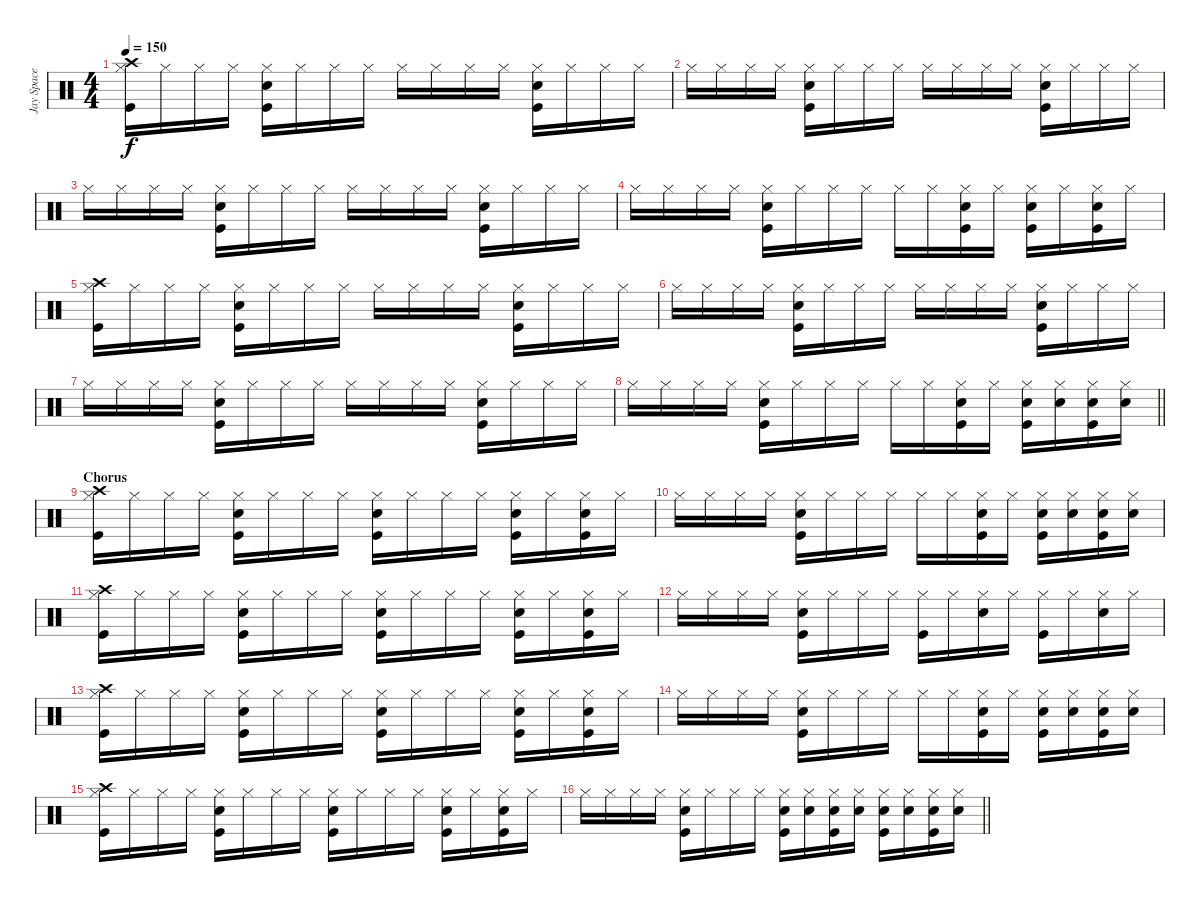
\track ("Jay Space - Drums" "Jay Space ") {instrument percussion}
\staff {score}
\articulation defaults
\ts (4 4)
\tempo 150
\clef neutral
\ks c
("Hi-Hat (closed)" "Kick (hit)" "Crash high (hit)").16{dy f} "Hi-Hat (closed)".16 "Hi-Hat (closed)".16 "Hi-Hat (closed)".16 ("Hi-Hat (closed)" "Snare (hit) 2" "Kick (hit)").16 "Hi-Hat (closed)".16 "Hi-Hat (closed)".16 "Hi-Hat (closed)".16 "Hi-Hat (closed)".16 "Hi-Hat (closed)".16 "Hi-Hat (closed)".16 "Hi-Hat (closed)".16 ("Hi-Hat (closed)" "Snare (hit) 2" "Kick (hit)").16 "Hi-Hat (closed)".16 "Hi-Hat (closed)".16 "Hi-Hat (closed)".16 |
"Hi-Hat (closed)".16 "Hi-Hat (closed)".16 "Hi-Hat (closed)".16 "Hi-Hat (closed)".16 ("Hi-Hat (closed)" "Snare (hit) 2" "Kick (hit)").16 "Hi-Hat (closed)".16 "Hi-Hat (closed)".16 "Hi-Hat (closed)".16 "Hi-Hat (closed)".16 "Hi-Hat (closed)".16 "Hi-Hat (closed)".16 "Hi-Hat (closed)".16 ("Hi-Hat (closed)" "Snare (hit) 2" "Kick (hit)").16 "Hi-Hat (closed)".16 "Hi-Hat (closed)".16 "Hi-Hat (closed)".16 |
"Hi-Hat (closed)".16 "Hi-Hat (closed)".16 "Hi-Hat (closed)".16 "Hi-Hat (closed)".16 ("Hi-Hat (closed)" "Snare (hit) 2" "Kick (hit)").16 "Hi-Hat (closed)".16 "Hi-Hat (closed)".16 "Hi-Hat (closed)".16 "Hi-Hat (closed)".16 "Hi-Hat (closed)".16 "Hi-Hat (closed)".16 "Hi-Hat (closed)".16 ("Hi-Hat (closed)" "Snare (hit) 2" "Kick (hit)").16 "Hi-Hat (closed)".16 "Hi-Hat (closed)".16 "Hi-Hat (closed)".16 |
"Hi-Hat (closed)".16 "Hi-Hat (closed)".16 "Hi-Hat (closed)".16 "Hi-Hat (closed)".16 ("Hi-Hat (closed)" "Snare (hit) 2" "Kick (hit)").16 "Hi-Hat (closed)".16 "Hi-Hat (closed)".16 "Hi-Hat (closed)".16 "Hi-Hat (closed)".16 "Hi-Hat (closed)".16 ("Hi-Hat (closed)" "Snare (hit) 2" "Kick (hit)").16 "Hi-Hat (closed)".16 ("Hi-Hat (closed)" "Snare (hit) 2" "Kick (hit)").16 "Hi-Hat (closed)".16 ("Hi-Hat (closed)" "Snare (hit) 2" "Kick (hit)").16 "Hi-Hat (closed)".16 |
("Hi-Hat (closed)" "Kick (hit)" "Crash high (hit)").16 "Hi-Hat (closed)".16 "Hi-Hat (closed)".16 "Hi-Hat (closed)".16 ("Hi-Hat (closed)" "Snare (hit) 2" "Kick (hit)").16 "Hi-Hat (closed)".16 "Hi-Hat (closed)".16 "Hi-Hat (closed)".16 "Hi-Hat (closed)".16 "Hi-Hat (closed)".16 "Hi-Hat (closed)".16 "Hi-Hat (closed)".16 ("Hi-Hat (closed)" "Snare (hit) 2" "Kick (hit)").16 "Hi-Hat (closed)".16 "Hi-Hat (closed)".16 "Hi-Hat (closed)".16 |
"Hi-Hat (closed)".16 "Hi-Hat (closed)".16 "Hi-Hat (closed)".16 "Hi-Hat (closed)".16 ("Hi-Hat (closed)" "Snare (hit) 2" "Kick (hit)").16 "Hi-Hat (closed)".16 "Hi-Hat (closed)".16 "Hi-Hat (closed)".16 "Hi-Hat (closed)".16 "Hi-Hat (closed)".16 "Hi-Hat (closed)".16 "Hi-Hat (closed)".16 ("Hi-Hat (closed)" "Snare (hit) 2" "Kick (hit)").16 "Hi-Hat (closed)".16 "Hi-Hat (closed)".16 "Hi-Hat (closed)".16 |
"Hi-Hat (closed)".16 "Hi-Hat (closed)".16 "Hi-Hat (closed)".16 "Hi-Hat (closed)".16 ("Hi-Hat (closed)" "Snare (hit) 2" "Kick (hit)").16 "Hi-Hat (closed)".16 "Hi-Hat (closed)".16 "Hi-Hat (closed)".16 "Hi-Hat (closed)".16 "Hi-Hat (closed)".16 "Hi-Hat (closed)".16 "Hi-Hat (closed)".16 ("Hi-Hat (closed)" "Snare (hit) 2" "Kick (hit)").16 "Hi-Hat (closed)".16 "Hi-Hat (closed)".16 "Hi-Hat (closed)".16 |
\barLineRight lightlight "Hi-Hat (closed)".16 "Hi-Hat (closed)".16 "Hi-Hat (closed)".16 "Hi-Hat (closed)".16
("Hi-Hat (closed)" "Snare (hit) 2" "Kick (hit)").16 "Hi-Hat (closed)".16 "Hi-Hat (closed)".16 "Hi-Hat (closed)".16 "Hi-Hat (closed)".16 "Hi-Hat (closed)".16 ("Hi-Hat (closed)" "Snare (hit) 2" "Kick (hit)").16 "Hi-Hat (closed)".16 ("Hi-Hat (closed)" "Snare (hit) 2" "Kick (hit)").16 ("Hi-Hat (closed)" "Snare (hit) 2").16 ("Hi-Hat (closed)" "Snare (hit) 2" "Kick (hit)").16 ("Hi-Hat (closed)" "Snare (hit) 2").16 |
\section ("" "Chorus")
("Hi-Hat (closed)" "Kick (hit)" "Crash high (hit)").16 "Hi-Hat (closed)".16 "Hi-Hat (closed)".16 "Hi-Hat (closed)".16 ("Hi-Hat (closed)" "Snare (hit) 2" "Kick (hit)").16 "Hi-Hat (closed)".16 "Hi-Hat (closed)".16 "Hi-Hat (closed)".16 ("Hi-Hat (closed)" "Snare (hit) 2" "Kick (hit)").16 "Hi-Hat (closed)".16 "Hi-Hat (closed)".16 "Hi-Hat (closed)".16 ("Hi-Hat (closed)" "Snare (hit) 2" "Kick (hit)").16 "Hi-Hat (closed)".16 ("Hi-Hat (closed)" "Snare (hit) 2" "Kick (hit)").16 "Hi-Hat (closed)".16 |
"Hi-Hat (closed)".16 "Hi-Hat (closed)".16 "Hi-Hat (closed)".16 "Hi-Hat (closed)".16 ("Hi-Hat (closed)" "Snare (hit) 2" "Kick (hit)").16 "Hi-Hat (closed)".16 "Hi-Hat (closed)".16 "Hi-Hat (closed)".16 "Hi-Hat (closed)".16 "Hi-Hat (closed)".16 ("Hi-Hat (closed)" "Snare (hit) 2" "Kick (hit)").16 "Hi-Hat (closed)".16 ("Hi-Hat (closed)" "Snare (hit) 2" "Kick (hit)").16 ("Hi-Hat (closed)" "Snare (hit) 2").16 ("Hi-Hat (closed)" "Snare (hit) 2" "Kick (hit)").16 ("Hi-Hat (closed)" "Snare (hit) 2").16 |
("Hi-Hat (closed)" "Kick (hit)" "Crash high (hit)").16 "Hi-Hat (closed)".16 "Hi-Hat (closed)".16 "Hi-Hat (closed)".16 ("Hi-Hat (closed)" "Snare (hit) 2" "Kick (hit)").16 "Hi-Hat (closed)".16 "Hi-Hat (closed)".16 "Hi-Hat (closed)".16 ("Hi-Hat (closed)" "Snare (hit) 2" "Kick (hit)").16 "Hi-Hat (closed)".16 "Hi-Hat (closed)".16 "Hi-Hat (closed)".16 ("Hi-Hat (closed)" "Snare (hit) 2" "Kick (hit)").16 "Hi-Hat (closed)".16 ("Hi-Hat (closed)" "Snare (hit) 2" "Kick (hit)").16 "Hi-Hat (closed)".16 |
"Hi-Hat (closed)".16 "Hi-Hat (closed)".16 "Hi-Hat (closed)".16 "Hi-Hat (closed)".16 ("Hi-Hat (closed)" "Snare (hit) 2" "Kick (hit)").16 "Hi-Hat (closed)".16 "Hi-Hat (closed)".16 "Hi-Hat (closed)".16 ("Hi-Hat (closed)" "Kick (hit)").16 "Hi-Hat (closed)".16 ("Hi-Hat (closed)" "Snare (hit) 2").16 "Hi-Hat (closed)".16 ("Hi-Hat (closed)" "Kick (hit)").16 "Hi-Hat (closed)".16 ("Hi-Hat (closed)" "Snare (hit) 2").16 "Hi-Hat (closed)".16 |
("Hi-Hat (closed)" "Kick (hit)" "Crash high (hit)").16 "Hi-Hat (closed)".16 "Hi-Hat (closed)".16 "Hi-Hat (closed)".16 ("Hi-Hat (closed)" "Snare (hit) 2" "Kick (hit)").16 "Hi-Hat (closed)".16 "Hi-Hat (closed)".16 "Hi-Hat (closed)".16 ("Hi-Hat (closed)" "Snare (hit) 2" "Kick (hit)").16 "Hi-Hat (closed)".16 "Hi-Hat (closed)".16 "Hi-Hat (closed)".16 ("Hi-Hat (closed)" "Snare (hit) 2" "Kick (hit)").16 "Hi-Hat (closed)".16 ("Hi-Hat (closed)" "Snare (hit) 2" "Kick (hit)").16 "Hi-Hat (closed)".16 |
"Hi-Hat (closed)".16 "Hi-Hat (closed)".16 "Hi-Hat (closed)".16 "Hi-Hat (closed)".16 ("Hi-Hat (closed)" "Snare (hit) 2" "Kick (hit)").16 "Hi-Hat (closed)".16 "Hi-Hat (closed)".16 "Hi-Hat (closed)".16 "Hi-Hat (closed)".16 "Hi-Hat (closed)".16 ("Hi-Hat (closed)" "Snare (hit) 2" "Kick (hit)").16 "Hi-Hat (closed)".16 ("Hi-Hat (closed)" "Snare (hit) 2" "Kick (hit)").16 ("Hi-Hat (closed)" "Snare (hit) 2").16 ("Hi-Hat (closed)" "Snare (hit) 2" "Kick (hit)").16 ("Hi-Hat (closed)" "Snare (hit) 2").16 |
("Hi-Hat (closed)" "Kick (hit)" "Crash high (hit)").16 "Hi-Hat (closed)".16 "Hi-Hat (closed)".16 "Hi-Hat (closed)".16 ("Hi-Hat (closed)" "Snare (hit) 2" "Kick (hit)").16 "Hi-Hat (closed)".16 "Hi-Hat (closed)".16 "Hi-Hat (closed)".16 ("Hi-Hat (closed)" "Snare (hit) 2" "Kick (hit)").16 "Hi-Hat (closed)".16 "Hi-Hat (closed)".16 "Hi-Hat (closed)".16 ("Hi-Hat (closed)" "Snare (hit) 2" "Kick (hit)").16 "Hi-Hat (closed)".16 ("Hi-Hat (closed)" "Snare (hit) 2" "Kick (hit)").16 "Hi-Hat (closed)".16 |
\barLineRight lightlight "Hi-Hat (closed)".16 "Hi-Hat (closed)".16 "Hi-Hat (closed)".16 "Hi-Hat (closed)".16
("Hi-Hat (closed)" "Snare (hit) 2" "Kick (hit)").16 "Hi-Hat (closed)".16 "Hi-Hat (closed)".16 "Hi-Hat (closed)".16 ("Hi-Hat (closed)" "Snare (hit) 2" "Kick (hit)").16 ("Hi-Hat (closed)" "Snare (hit) 2").16 ("Hi-Hat (closed)" "Snare (hit) 2" "Kick (hit)").16 ("Hi-Hat (closed)" "Snare (hit) 2").16 ("Hi-Hat (closed)" "Snare (hit) 2" "Kick (hit)").16 ("Hi-Hat (closed)" "Snare (hit) 2").16 ("Hi-Hat (closed)" "Snare (hit) 2" "Kick (hit)").16 ("Hi-Hat (closed)" "Snare (hit) 2").16
